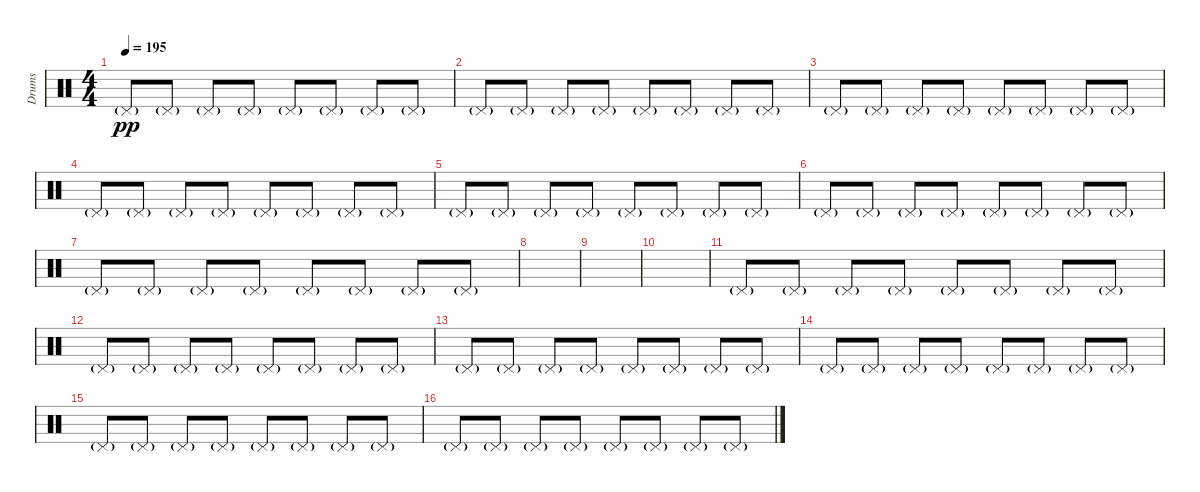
\track ("Drums" "Drums") {instrument percussion}
\staff {score}
\articulation defaults
\ts (4 4)
\tempo 195
\clef neutral
\ks c "Pedal Hi-Hat (hit)"{g}.8{dy pp} "Pedal Hi-Hat (hit)"{g}.8 "Pedal Hi-Hat (hit)"{g}.8 "Pedal Hi-Hat (hit)"{g}.8 "Pedal Hi-Hat (hit)"{g}.8 "Pedal Hi-Hat (hit)"{g}.8 "Pedal Hi-Hat (hit)"{g}.8 "Pedal Hi-Hat (hit)"{g}.8
|
"Pedal Hi-Hat (hit)"{g}.8 "Pedal Hi-Hat (hit)"{g}.8 "Pedal Hi-Hat (hit)"{g}.8 "Pedal Hi-Hat (hit)"{g}.8 "Pedal Hi-Hat (hit)"{g}.8 "Pedal Hi-Hat (hit)"{g}.8 "Pedal Hi-Hat (hit)"{g}.8 "Pedal Hi-Hat (hit)"{g}.8 |
"Pedal Hi-Hat (hit)"{g}.8 "Pedal Hi-Hat (hit)"{g}.8 "Pedal Hi-Hat (hit)"{g}.8 "Pedal Hi-Hat (hit)"{g}.8 "Pedal Hi-Hat (hit)"{g}.8 "Pedal Hi-Hat (hit)"{g}.8 "Pedal Hi-Hat (hit)"{g}.8 "Pedal Hi-Hat (hit)"{g}.8 |
"Pedal Hi-Hat (hit)"{g}.8 "Pedal Hi-Hat (hit)"{g}.8 "Pedal Hi-Hat (hit)"{g}.8 "Pedal Hi-Hat (hit)"{g}.8 "Pedal Hi-Hat (hit)"{g}.8 "Pedal Hi-Hat (hit)"{g}.8 "Pedal Hi-Hat (hit)"{g}.8 "Pedal Hi-Hat (hit)"{g}.8 |
"Pedal Hi-Hat (hit)"{g}.8 "Pedal Hi-Hat (hit)"{g}.8 "Pedal Hi-Hat (hit)"{g}.8 "Pedal Hi-Hat (hit)"{g}.8 "Pedal Hi-Hat (hit)"{g}.8 "Pedal Hi-Hat (hit)"{g}.8 "Pedal Hi-Hat (hit)"{g}.8 "Pedal Hi-Hat (hit)"{g}.8 |
"Pedal Hi-Hat (hit)"{g}.8 "Pedal Hi-Hat (hit)"{g}.8 "Pedal Hi-Hat (hit)"{g}.8 "Pedal Hi-Hat (hit)"{g}.8 "Pedal Hi-Hat (hit)"{g}.8 "Pedal Hi-Hat (hit)"{g}.8 "Pedal Hi-Hat (hit)"{g}.8 "Pedal Hi-Hat (hit)"{g}.8 |
"Pedal Hi-Hat (hit)"{g}.8 "Pedal Hi-Hat (hit)"{g}.8 "Pedal Hi-Hat (hit)"{g}.8 "Pedal Hi-Hat (hit)"{g}.8 "Pedal Hi-Hat (hit)"{g}.8 "Pedal Hi-Hat (hit)"{g}.8 "Pedal Hi-Hat (hit)"{g}.8 "Pedal Hi-Hat (hit)"{g}.8 |
|
|
|
"Pedal Hi-Hat (hit)"{g}.8 "Pedal Hi-Hat (hit)"{g}.8 "Pedal Hi-Hat (hit)"{g}.8 "Pedal Hi-Hat (hit)"{g}.8 "Pedal Hi-Hat (hit)"{g}.8 "Pedal Hi-Hat (hit)"{g}.8 "Pedal Hi-Hat (hit)"{g}.8 "Pedal Hi-Hat (hit)"{g}.8 |
"Pedal Hi-Hat (hit)"{g}.8 "Pedal Hi-Hat (hit)"{g}.8 "Pedal Hi-Hat (hit)"{g}.8 "Pedal Hi-Hat (hit)"{g}.8 "Pedal Hi-Hat (hit)"{g}.8 "Pedal Hi-Hat (hit)"{g}.8 "Pedal Hi-Hat (hit)"{g}.8 "Pedal Hi-Hat (hit)"{g}.8 |
"Pedal Hi-Hat (hit)"{g}.8 "Pedal Hi-Hat (hit)"{g}.8 "Pedal Hi-Hat (hit)"{g}.8 "Pedal Hi-Hat (hit)"{g}.8 "Pedal Hi-Hat (hit)"{g}.8 "Pedal Hi-Hat (hit)"{g}.8 "Pedal Hi-Hat (hit)"{g}.8 "Pedal Hi-Hat (hit)"{g}.8 |
"Pedal Hi-Hat (hit)"{g}.8 "Pedal Hi-Hat (hit)"{g}.8 "Pedal Hi-Hat (hit)"{g}.8 "Pedal Hi-Hat (hit)"{g}.8 "Pedal Hi-Hat (hit)"{g}.8 "Pedal Hi-Hat (hit)"{g}.8 "Pedal Hi-Hat (hit)"{g}.8 "Pedal Hi-Hat (hit)"{g}.8 |
"Pedal Hi-Hat (hit)"{g}.8 "Pedal Hi-Hat (hit)"{g}.8 "Pedal Hi-Hat (hit)"{g}.8 "Pedal Hi-Hat (hit)"{g}.8 "Pedal Hi-Hat (hit)"{g}.8 "Pedal Hi-Hat (hit)"{g}.8 "Pedal Hi-Hat (hit)"{g}.8 "Pedal Hi-Hat (hit)"{g}.8 |
"Pedal Hi-Hat (hit)"{g}.8 "Pedal Hi-Hat (hit)"{g}.8 "Pedal Hi-Hat (hit)"{g}.8 "Pedal Hi-Hat (hit)"{g}.8 "Pedal Hi-Hat (hit)"{g}.8 "Pedal Hi-Hat (hit)"{g}.8 "Pedal Hi-Hat (hit)"{g}.8 "Pedal Hi-Hat (hit)"{g}.8
